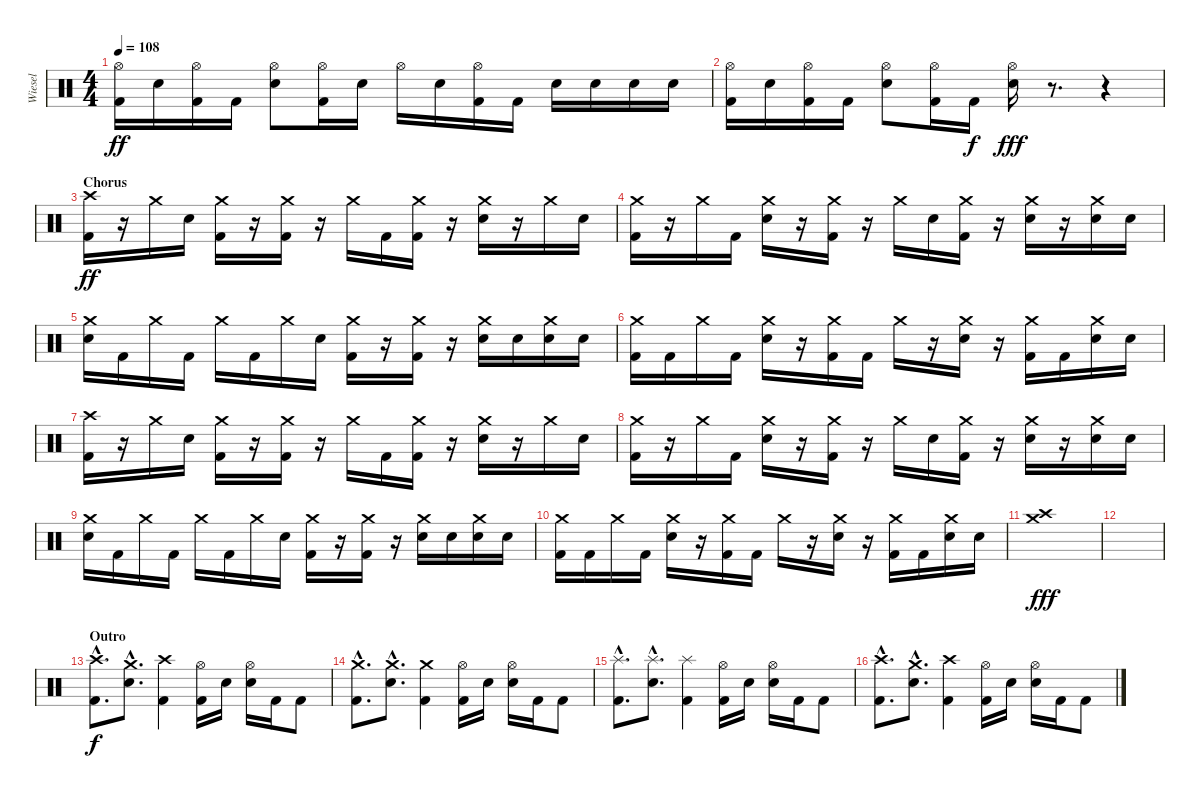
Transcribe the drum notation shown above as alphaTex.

\track ("Wiesel" "Wiesel") {instrument percussion}
\staff {score}
\articulation defaults
\ts (4 4)
\tempo 108
\clef neutral
\ks c
("Hi-Hat (open)" "Kick (hit) 2").16{dy ff} "Electric Snare (hit)".16 ("Hi-Hat (open)" "Kick (hit) 2").16 "Kick (hit) 2".16 ("Hi-Hat (open)" "Electric Snare (hit)").8 ("Hi-Hat (open)" "Kick (hit) 2").16 "Electric Snare (hit)".16 "Hi-Hat (open)".16 "Electric Snare (hit)".16 ("Hi-Hat (open)" "Kick (hit) 2").16 "Kick (hit) 2".16 "Electric Snare (hit)".16 "Electric Snare (hit)".16 "Electric Snare (hit)".16 "Electric Snare (hit)".16 |
("Hi-Hat (open)" "Kick (hit) 2").16 "Electric Snare (hit)".16 ("Hi-Hat (open)" "Kick (hit) 2").16 "Kick (hit) 2".16 ("Hi-Hat (open)" "Electric Snare (hit)").8 ("Hi-Hat (open)" "Kick (hit) 2").16 "Kick (hit) 2".16{dy f} ("Hi-Hat (open)" "Electric Snare (hit)").16{dy fff} r.8{d} r.4 |
\section ("" "Chorus")
("Crash high (hit)" "Kick (hit) 2").16{dy ff} r.16 "Crash medium (hit)".16 "Electric Snare (hit)".16 ("Crash medium (hit)" "Kick (hit) 2").16 r.16 ("Crash medium (hit)" "Kick (hit) 2").16 r.16 "Crash medium (hit)".16 "Kick (hit) 2".16 ("Crash medium (hit)" "Kick (hit) 2").16 r.16 ("Crash medium (hit)" "Electric Snare (hit)").16 r.16 "Crash medium (hit)".16 "Electric Snare (hit)".16 |
("Crash medium (hit)" "Kick (hit) 2").16 r.16 "Crash medium (hit)".16 "Kick (hit) 2".16 ("Crash medium (hit)" "Electric Snare (hit)").16 r.16 ("Crash medium (hit)" "Kick (hit) 2").16 r.16 "Crash medium (hit)".16 "Electric Snare (hit)".16 ("Crash medium (hit)" "Kick (hit) 2").16 r.16 ("Crash medium (hit)" "Electric Snare (hit)").16 r.16 ("Crash medium (hit)" "Electric Snare (hit)").16 "Electric Snare (hit)".16 |
("Crash medium (hit)" "Electric Snare (hit)").16 "Kick (hit) 2".16 "Crash medium (hit)".16 "Kick (hit) 2".16 "Crash medium (hit)".16 "Kick (hit) 2".16 "Crash medium (hit)".16 "Electric Snare (hit)".16 ("Crash medium (hit)" "Kick (hit) 2").16 r.16 ("Crash medium (hit)" "Kick (hit) 2").16 r.16 ("Crash medium (hit)" "Electric Snare (hit)").16 "Electric Snare (hit)".16 ("Crash medium (hit)" "Electric Snare (hit)").16 "Electric Snare (hit)".16 |
("Crash medium (hit)" "Kick (hit) 2").16 "Kick (hit) 2".16 "Crash medium (hit)".16 "Kick (hit) 2".16 ("Crash medium (hit)" "Electric Snare (hit)").16 r.16 ("Crash medium (hit)" "Kick (hit) 2").16 "Kick (hit) 2".16 "Crash medium (hit)".16 r.16 ("Crash medium (hit)" "Electric Snare (hit)").16 r.16 ("Crash medium (hit)" "Kick (hit) 2").16 "Kick (hit) 2".16 ("Crash medium (hit)" "Electric Snare (hit)").16 "Electric Snare (hit)".16 |
("Crash high (hit)" "Kick (hit) 2").16 r.16 "Crash medium (hit)".16 "Electric Snare (hit)".16 ("Crash medium (hit)" "Kick (hit) 2").16 r.16 ("Crash medium (hit)" "Kick (hit) 2").16 r.16 "Crash medium (hit)".16 "Kick (hit) 2".16 ("Crash medium (hit)" "Kick (hit) 2").16 r.16 ("Crash medium (hit)" "Electric Snare (hit)").16 r.16 "Crash medium (hit)".16 "Electric Snare (hit)".16 |
("Crash medium (hit)" "Kick (hit) 2").16 r.16 "Crash medium (hit)".16 "Kick (hit) 2".16 ("Crash medium (hit)" "Electric Snare (hit)").16 r.16 ("Crash medium (hit)" "Kick (hit) 2").16 r.16 "Crash medium (hit)".16 "Electric Snare (hit)".16 ("Crash medium (hit)" "Kick (hit) 2").16 r.16 ("Crash medium (hit)" "Electric Snare (hit)").16 r.16 ("Crash medium (hit)" "Electric Snare (hit)").16 "Electric Snare (hit)".16 |
("Crash medium (hit)" "Electric Snare (hit)").16 "Kick (hit) 2".16 "Crash medium (hit)".16 "Kick (hit) 2".16 "Crash medium (hit)".16 "Kick (hit) 2".16 "Crash medium (hit)".16 "Electric Snare (hit)".16 ("Crash medium (hit)" "Kick (hit) 2").16 r.16 ("Crash medium (hit)" "Kick (hit) 2").16 r.16 ("Crash medium (hit)" "Electric Snare (hit)").16 "Electric Snare (hit)".16 ("Crash medium (hit)" "Electric Snare (hit)").16 "Electric Snare (hit)".16 |
("Crash medium (hit)" "Kick (hit) 2").16 "Kick (hit) 2".16 "Crash medium (hit)".16 "Kick (hit) 2".16 ("Crash medium (hit)" "Electric Snare (hit)").16 r.16 ("Crash medium (hit)" "Kick (hit) 2").16 "Kick (hit) 2".16 "Crash medium (hit)".16 r.16 ("Crash medium (hit)" "Electric Snare (hit)").16 r.16 ("Crash medium (hit)" "Kick (hit) 2").16 "Kick (hit) 2".16 ("Crash medium (hit)" "Electric Snare (hit)").16 "Electric Snare (hit)".16 |
("Crash high (hit)" "Crash medium (hit)").1{dy fff} |
|
\section ("" "Outro")
("Crash high (hit)"{hac} "Kick (hit) 2"{hac}).8{d dy f} ("Crash medium (hit)"{hac} "Electric Snare (hit)"{hac}).8{d} ("Crash high (hit)" "Kick (hit) 2").4 ("Hi-Hat (open)" "Kick (hit) 2").16 "Electric Snare (hit)".16 ("Hi-Hat (open)" "Electric Snare (hit)").16 "Kick (hit) 2".16 "Kick (hit) 2".8 |
("Crash medium (hit)"{hac} "Kick (hit) 2"{hac}).8{d} ("Crash medium (hit)"{hac} "Electric Snare (hit)"{hac}).8{d} ("Crash medium (hit)" "Kick (hit) 2").4 ("Hi-Hat (open)" "Kick (hit) 2").16 "Electric Snare (hit)".16 ("Hi-Hat (open)" "Electric Snare (hit)").16 "Kick (hit) 2".16 "Kick (hit) 2".8 |
("Splash (hit)"{hac} "Kick (hit) 2"{hac}).8{d} ("Splash (hit)"{hac} "Electric Snare (hit)"{hac}).8{d} ("Splash (hit)" "Kick (hit) 2").4 ("Hi-Hat (open)" "Kick (hit) 2").16 "Electric Snare (hit)".16 ("Hi-Hat (open)" "Electric Snare (hit)").16 "Kick (hit) 2".16 "Kick (hit) 2".8 |
("Crash high (hit)"{hac} "Kick (hit) 2"{hac}).8{d} ("Crash medium (hit)"{hac} "Electric Snare (hit)"{hac}).8{d} ("Crash high (hit)" "Kick (hit) 2").4 ("Hi-Hat (open)" "Kick (hit) 2").16 "Electric Snare (hit)".16 ("Hi-Hat (open)" "Electric Snare (hit)").16 "Kick (hit) 2".16 "Kick (hit) 2".8
